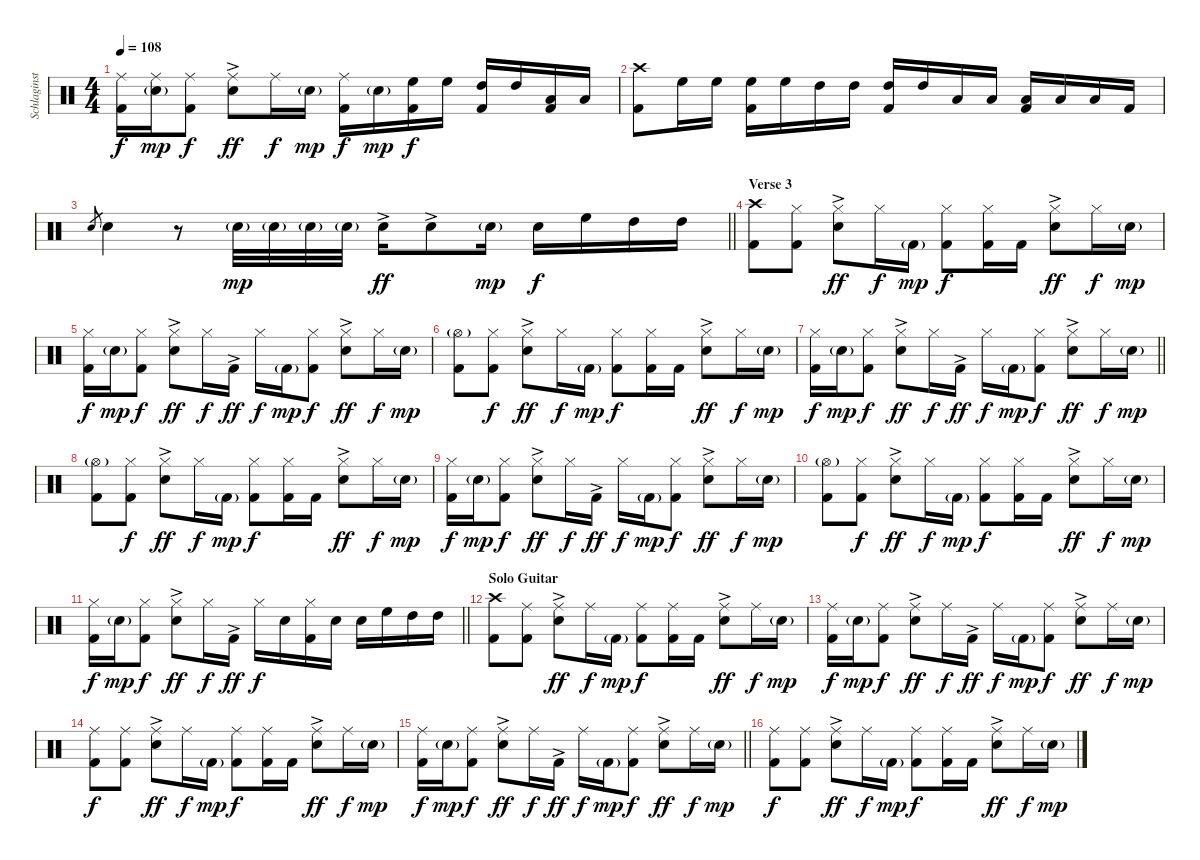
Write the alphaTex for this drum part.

\track ("Schlaginstrumente - Auswahl" "Schlaginst") {instrument percussion}
\staff {score}
\articulation defaults
\ts (4 4)
\tempo 108
\clef neutral
\ks c
("Ride (middle)" "Kick (hit) 2").16{dy f} ("Ride (middle)" "Snare (hit) 2"{g}).16{dy mp} ("Ride (middle)" "Kick (hit) 2").8{dy f} ("Ride (middle)" "Snare (hit) 2"{ac}).8{dy ff} "Ride (middle)".16{dy f} "Snare (hit) 2"{g}.16{dy mp} ("Ride (middle)" "Kick (hit) 2").16{dy f} "Snare (hit) 2"{g}.16{dy mp} ("High Floor Tom (hit)" "Kick (hit) 2").16{dy f} "High Floor Tom (hit)".16 ("High Tom (hit)" "Kick (hit) 2").16 "High Tom (hit)".16 ("Low Tom (hit)" "Kick (hit) 2").16 "Low Tom (hit)".16 |
("Crash high (hit)" "Kick (hit) 2").8 "High Floor Tom (hit)".16 "High Floor Tom (hit)".16 ("High Floor Tom (hit)" "Kick (hit) 2").16 "High Floor Tom (hit)".16 "High Tom (hit)".16 "High Tom (hit)".16 ("High Tom (hit)" "Kick (hit) 2").16 "High Tom (hit)".16 "Low Tom (hit)".16 "Low Tom (hit)".16 ("Low Tom (hit)" "Kick (hit) 2").16 "Low Tom (hit)".16 "Low Tom (hit)".16 "Kick (hit) 2".16 |
\barLineRight lightlight "Snare (hit) 2".8{gr} "Snare (hit) 2".4
r.8 "Snare (hit) 2"{g}.32{dy mp} "Snare (hit) 2"{g}.32 "Snare (hit) 2"{g}.32 "Snare (hit) 2"{g}.32 "Snare (hit) 2"{ac}.16{dy ff} "Snare (hit) 2"{ac}.8 "Snare (hit) 2"{g}.16{dy mp} "Snare (hit) 2".16{dy f} "High Floor Tom (hit)".16 "High Tom (hit)".16 "High Tom (hit)".16 |
\section ("" "Verse 3")
("Crash high (hit)" "Kick (hit) 2").8 ("Hi-Hat (closed)" "Kick (hit) 2").8 ("Hi-Hat (closed)" "Snare (hit) 2"{ac}).8{dy ff} "Hi-Hat (closed)".16{dy f} "Kick (hit) 2"{g}.16{dy mp} ("Hi-Hat (closed)" "Kick (hit) 2").8{dy f} ("Hi-Hat (closed)" "Kick (hit) 2").16 "Kick (hit) 2".16 ("Hi-Hat (closed)" "Snare (hit) 2"{ac}).8{dy ff} "Hi-Hat (closed)".16{dy f} "Snare (hit) 2"{g}.16{dy mp} |
("Hi-Hat (closed)" "Kick (hit) 2").16{dy f} "Snare (hit) 2"{g}.16{dy mp} ("Hi-Hat (closed)" "Kick (hit) 2").8{dy f} ("Hi-Hat (closed)" "Snare (hit) 2"{ac}).8{dy ff} "Hi-Hat (closed)".16{dy f} "Kick (hit) 2"{ac}.16{dy ff} "Hi-Hat (closed)".16{dy f} "Kick (hit) 2"{g}.16{dy mp} ("Hi-Hat (closed)" "Kick (hit) 2").8{dy f} ("Hi-Hat (closed)" "Snare (hit) 2"{ac}).8{dy ff} "Hi-Hat (closed)".16{dy f} "Snare (hit) 2"{g}.16{dy mp} |
("Hi-Hat (open)"{g} "Kick (hit) 2").8 ("Hi-Hat (closed)" "Kick (hit) 2").8{dy f} ("Hi-Hat (closed)" "Snare (hit) 2"{ac}).8{dy ff} "Hi-Hat (closed)".16{dy f} "Kick (hit) 2"{g}.16{dy mp} ("Hi-Hat (closed)" "Kick (hit) 2").8{dy f} ("Hi-Hat (closed)" "Kick (hit) 2").16 "Kick (hit) 2".16 ("Hi-Hat (closed)" "Snare (hit) 2"{ac}).8{dy ff} "Hi-Hat (closed)".16{dy f} "Snare (hit) 2"{g}.16{dy mp} |
\barLineRight lightlight
("Hi-Hat (closed)" "Kick (hit) 2").16{dy f} "Snare (hit) 2"{g}.16{dy mp} ("Hi-Hat (closed)" "Kick (hit) 2").8{dy f} ("Hi-Hat (closed)" "Snare (hit) 2"{ac}).8{dy ff} "Hi-Hat (closed)".16{dy f} "Kick (hit) 2"{ac}.16{dy ff} "Hi-Hat (closed)".16{dy f} "Kick (hit) 2"{g}.16{dy mp} ("Hi-Hat (closed)" "Kick (hit) 2").8{dy f} ("Hi-Hat (closed)" "Snare (hit) 2"{ac}).8{dy ff} "Hi-Hat (closed)".16{dy f} "Snare (hit) 2"{g}.16{dy mp} |
("Hi-Hat (open)"{g} "Kick (hit) 2").8 ("Hi-Hat (closed)" "Kick (hit) 2").8{dy f} ("Hi-Hat (closed)" "Snare (hit) 2"{ac}).8{dy ff} "Hi-Hat (closed)".16{dy f} "Kick (hit) 2"{g}.16{dy mp} ("Hi-Hat (closed)" "Kick (hit) 2").8{dy f} ("Hi-Hat (closed)" "Kick (hit) 2").16 "Kick (hit) 2".16 ("Hi-Hat (closed)" "Snare (hit) 2"{ac}).8{dy ff} "Hi-Hat (closed)".16{dy f} "Snare (hit) 2"{g}.16{dy mp} |
("Hi-Hat (closed)" "Kick (hit) 2").16{dy f} "Snare (hit) 2"{g}.16{dy mp} ("Hi-Hat (closed)" "Kick (hit) 2").8{dy f} ("Hi-Hat (closed)" "Snare (hit) 2"{ac}).8{dy ff} "Hi-Hat (closed)".16{dy f} "Kick (hit) 2"{ac}.16{dy ff} "Hi-Hat (closed)".16{dy f} "Kick (hit) 2"{g}.16{dy mp} ("Hi-Hat (closed)" "Kick (hit) 2").8{dy f} ("Hi-Hat (closed)" "Snare (hit) 2"{ac}).8{dy ff} "Hi-Hat (closed)".16{dy f} "Snare (hit) 2"{g}.16{dy mp} |
("Hi-Hat (open)"{g} "Kick (hit) 2").8 ("Hi-Hat (closed)" "Kick (hit) 2").8{dy f} ("Hi-Hat (closed)" "Snare (hit) 2"{ac}).8{dy ff} "Hi-Hat (closed)".16{dy f} "Kick (hit) 2"{g}.16{dy mp} ("Hi-Hat (closed)" "Kick (hit) 2").8{dy f} ("Hi-Hat (closed)" "Kick (hit) 2").16 "Kick (hit) 2".16 ("Hi-Hat (closed)" "Snare (hit) 2"{ac}).8{dy ff} "Hi-Hat (closed)".16{dy f} "Snare (hit) 2"{g}.16{dy mp} |
\barLineRight lightlight
("Hi-Hat (closed)" "Kick (hit) 2").16{dy f} "Snare (hit) 2"{g}.16{dy mp} ("Hi-Hat (closed)" "Kick (hit) 2").8{dy f} ("Hi-Hat (closed)" "Snare (hit) 2"{ac}).8{dy ff} "Hi-Hat (closed)".16{dy f} "Kick (hit) 2"{ac}.16{dy ff} "Hi-Hat (closed)".16{dy f} "Snare (hit) 2".16 ("Hi-Hat (closed)" "Kick (hit) 2").16 "Snare (hit) 2".16 "Snare (hit) 2".16 "High Floor Tom (hit)".16 "High Tom (hit)".16 "High Tom (hit)".16 |
\section ("" "Solo Guitar")
("Crash high (hit)" "Kick (hit) 2").8 ("Ride (middle)" "Kick (hit) 2").8 ("Ride (middle)" "Snare (hit) 2"{ac}).8{dy ff} "Ride (middle)".16{dy f} "Kick (hit) 2"{g}.16{dy mp} ("Ride (middle)" "Kick (hit) 2").8{dy f} ("Ride (middle)" "Kick (hit) 2").16 "Kick (hit) 2".16 ("Ride (middle)" "Snare (hit) 2"{ac}).8{dy ff} "Ride (middle)".16{dy f} "Snare (hit) 2"{g}.16{dy mp} |
("Ride (middle)" "Kick (hit) 2").16{dy f} "Snare (hit) 2"{g}.16{dy mp} ("Ride (middle)" "Kick (hit) 2").8{dy f} ("Ride (middle)" "Snare (hit) 2"{ac}).8{dy ff} "Ride (middle)".16{dy f} "Kick (hit) 2"{ac}.16{dy ff} "Ride (middle)".16{dy f} "Kick (hit) 2"{g}.16{dy mp} ("Ride (middle)" "Kick (hit) 2").8{dy f} ("Ride (middle)" "Snare (hit) 2"{ac}).8{dy ff} "Ride (middle)".16{dy f} "Snare (hit) 2"{g}.16{dy mp} |
("Ride (middle)" "Kick (hit) 2").8{dy f} ("Ride (middle)" "Kick (hit) 2").8 ("Ride (middle)" "Snare (hit) 2"{ac}).8{dy ff} "Ride (middle)".16{dy f} "Kick (hit) 2"{g}.16{dy mp} ("Ride (middle)" "Kick (hit) 2").8{dy f} ("Ride (middle)" "Kick (hit) 2").16 "Kick (hit) 2".16 ("Ride (middle)" "Snare (hit) 2"{ac}).8{dy ff} "Ride (middle)".16{dy f} "Snare (hit) 2"{g}.16{dy mp} |
\barLineRight lightlight
("Ride (middle)" "Kick (hit) 2").16{dy f} "Snare (hit) 2"{g}.16{dy mp} ("Ride (middle)" "Kick (hit) 2").8{dy f} ("Ride (middle)" "Snare (hit) 2"{ac}).8{dy ff} "Ride (middle)".16{dy f} "Kick (hit) 2"{ac}.16{dy ff} "Ride (middle)".16{dy f} "Kick (hit) 2"{g}.16{dy mp} ("Ride (middle)" "Kick (hit) 2").8{dy f} ("Ride (middle)" "Snare (hit) 2"{ac}).8{dy ff} "Ride (middle)".16{dy f} "Snare (hit) 2"{g}.16{dy mp} |
("Ride (middle)" "Kick (hit) 2").8{dy f} ("Ride (middle)" "Kick (hit) 2").8 ("Ride (middle)" "Snare (hit) 2"{ac}).8{dy ff} "Ride (middle)".16{dy f} "Kick (hit) 2"{g}.16{dy mp} ("Ride (middle)" "Kick (hit) 2").8{dy f} ("Ride (middle)" "Kick (hit) 2").16 "Kick (hit) 2".16 ("Ride (middle)" "Snare (hit) 2"{ac}).8{dy ff} "Ride (middle)".16{dy f} "Snare (hit) 2"{g}.16{dy mp}
